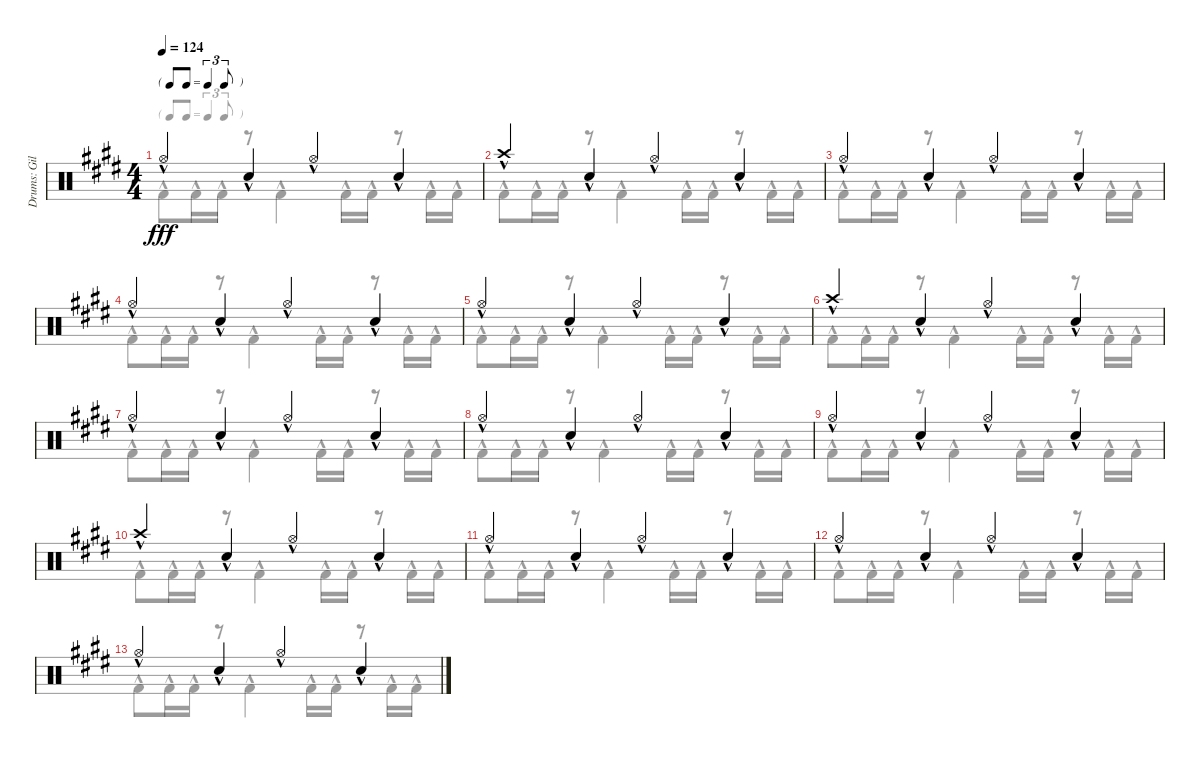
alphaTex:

\track ("Drums: Gil" "Drums: Gil") {instrument percussion}
\staff {score}
\articulation defaults
\voice
\ts (4 4)
\tf triplet8th
\tempo 124
\clef neutral
\ks e "Hi-Hat (open)"{hac}.4{dy fff} "Snare (hit) 2"{hac}.4 "Hi-Hat (open)"{hac}.4 "Snare (hit) 2"{hac}.4
|
"Crash high (hit)"{hac}.4 "Snare (hit) 2"{hac}.4 "Hi-Hat (open)"{hac}.4 "Snare (hit) 2"{hac}.4 |
"Hi-Hat (open)"{hac}.4 "Snare (hit) 2"{hac}.4 "Hi-Hat (open)"{hac}.4 "Snare (hit) 2"{hac}.4 |
"Hi-Hat (open)"{hac}.4 "Snare (hit) 2"{hac}.4 "Hi-Hat (open)"{hac}.4 "Snare (hit) 2"{hac}.4 |
"Hi-Hat (open)"{hac}.4 "Snare (hit) 2"{hac}.4 "Hi-Hat (open)"{hac}.4 "Snare (hit) 2"{hac}.4 |
"Crash high (hit)"{hac}.4 "Snare (hit) 2"{hac}.4 "Hi-Hat (open)"{hac}.4 "Snare (hit) 2"{hac}.4 |
"Hi-Hat (open)"{hac}.4 "Snare (hit) 2"{hac}.4 "Hi-Hat (open)"{hac}.4 "Snare (hit) 2"{hac}.4 |
"Hi-Hat (open)"{hac}.4 "Snare (hit) 2"{hac}.4 "Hi-Hat (open)"{hac}.4 "Snare (hit) 2"{hac}.4 |
"Hi-Hat (open)"{hac}.4 "Snare (hit) 2"{hac}.4 "Hi-Hat (open)"{hac}.4 "Snare (hit) 2"{hac}.4 |
"Crash high (hit)"{hac}.4{volume 0} "Snare (hit) 2"{hac}.4 "Hi-Hat (open)"{hac}.4 "Snare (hit) 2"{hac}.4 |
"Hi-Hat (open)"{hac}.4 "Snare (hit) 2"{hac}.4 "Hi-Hat (open)"{hac}.4 "Snare (hit) 2"{hac}.4 |
"Hi-Hat (open)"{hac}.4 "Snare (hit) 2"{hac}.4 "Hi-Hat (open)"{hac}.4 "Snare (hit) 2"{hac}.4 |
"Hi-Hat (open)"{hac}.4 "Snare (hit) 2"{hac}.4 "Hi-Hat (open)"{hac}.4 "Snare (hit) 2"{hac}.4
\voice
\clef neutral
\ottava regular
\simile none
\ks e "Kick (hit) 2"{hac}.8{dy fff} "Kick (hit) 2"{hac}.16 "Kick (hit) 2"{hac}.16
r.8 "Kick (hit) 2"{hac}.4 "Kick (hit) 2"{hac}.16 "Kick (hit) 2"{hac}.16 r.8 "Kick (hit) 2"{hac}.16 "Kick (hit) 2"{hac}.16 |
"Kick (hit) 2"{hac}.8 "Kick (hit) 2"{hac}.16 "Kick (hit) 2"{hac}.16 r.8 "Kick (hit) 2"{hac}.4 "Kick (hit) 2"{hac}.16 "Kick (hit) 2"{hac}.16 r.8 "Kick (hit) 2"{hac}.16 "Kick (hit) 2"{hac}.16 |
"Kick (hit) 2"{hac}.8 "Kick (hit) 2"{hac}.16 "Kick (hit) 2"{hac}.16 r.8 "Kick (hit) 2"{hac}.4 "Kick (hit) 2"{hac}.16 "Kick (hit) 2"{hac}.16 r.8 "Kick (hit) 2"{hac}.16 "Kick (hit) 2"{hac}.16 |
"Kick (hit) 2"{hac}.8 "Kick (hit) 2"{hac}.16 "Kick (hit) 2"{hac}.16 r.8 "Kick (hit) 2"{hac}.4 "Kick (hit) 2"{hac}.16 "Kick (hit) 2"{hac}.16 r.8 "Kick (hit) 2"{hac}.16 "Kick (hit) 2"{hac}.16 |
"Kick (hit) 2"{hac}.8 "Kick (hit) 2"{hac}.16 "Kick (hit) 2"{hac}.16 r.8 "Kick (hit) 2"{hac}.4 "Kick (hit) 2"{hac}.16 "Kick (hit) 2"{hac}.16 r.8 "Kick (hit) 2"{hac}.16 "Kick (hit) 2"{hac}.16 |
"Kick (hit) 2"{hac}.8 "Kick (hit) 2"{hac}.16 "Kick (hit) 2"{hac}.16 r.8 "Kick (hit) 2"{hac}.4 "Kick (hit) 2"{hac}.16 "Kick (hit) 2"{hac}.16 r.8 "Kick (hit) 2"{hac}.16 "Kick (hit) 2"{hac}.16 |
"Kick (hit) 2"{hac}.8 "Kick (hit) 2"{hac}.16 "Kick (hit) 2"{hac}.16 r.8 "Kick (hit) 2"{hac}.4 "Kick (hit) 2"{hac}.16 "Kick (hit) 2"{hac}.16 r.8 "Kick (hit) 2"{hac}.16 "Kick (hit) 2"{hac}.16 |
"Kick (hit) 2"{hac}.8 "Kick (hit) 2"{hac}.16 "Kick (hit) 2"{hac}.16 r.8 "Kick (hit) 2"{hac}.4 "Kick (hit) 2"{hac}.16 "Kick (hit) 2"{hac}.16 r.8 "Kick (hit) 2"{hac}.16 "Kick (hit) 2"{hac}.16 |
"Kick (hit) 2"{hac}.8 "Kick (hit) 2"{hac}.16 "Kick (hit) 2"{hac}.16 r.8 "Kick (hit) 2"{hac}.4 "Kick (hit) 2"{hac}.16 "Kick (hit) 2"{hac}.16 r.8 "Kick (hit) 2"{hac}.16 "Kick (hit) 2"{hac}.16 |
"Kick (hit) 2"{hac}.8 "Kick (hit) 2"{hac}.16 "Kick (hit) 2"{hac}.16 r.8 "Kick (hit) 2"{hac}.4 "Kick (hit) 2"{hac}.16 "Kick (hit) 2"{hac}.16 r.8 "Kick (hit) 2"{hac}.16 "Kick (hit) 2"{hac}.16 |
"Kick (hit) 2"{hac}.8 "Kick (hit) 2"{hac}.16 "Kick (hit) 2"{hac}.16 r.8 "Kick (hit) 2"{hac}.4 "Kick (hit) 2"{hac}.16 "Kick (hit) 2"{hac}.16 r.8 "Kick (hit) 2"{hac}.16 "Kick (hit) 2"{hac}.16 |
"Kick (hit) 2"{hac}.8 "Kick (hit) 2"{hac}.16 "Kick (hit) 2"{hac}.16 r.8 "Kick (hit) 2"{hac}.4 "Kick (hit) 2"{hac}.16 "Kick (hit) 2"{hac}.16 r.8 "Kick (hit) 2"{hac}.16 "Kick (hit) 2"{hac}.16 |
"Kick (hit) 2"{hac}.8 "Kick (hit) 2"{hac}.16 "Kick (hit) 2"{hac}.16 r.8 "Kick (hit) 2"{hac}.4 "Kick (hit) 2"{hac}.16 "Kick (hit) 2"{hac}.16 r.8 "Kick (hit) 2"{hac}.16 "Kick (hit) 2"{hac}.16
